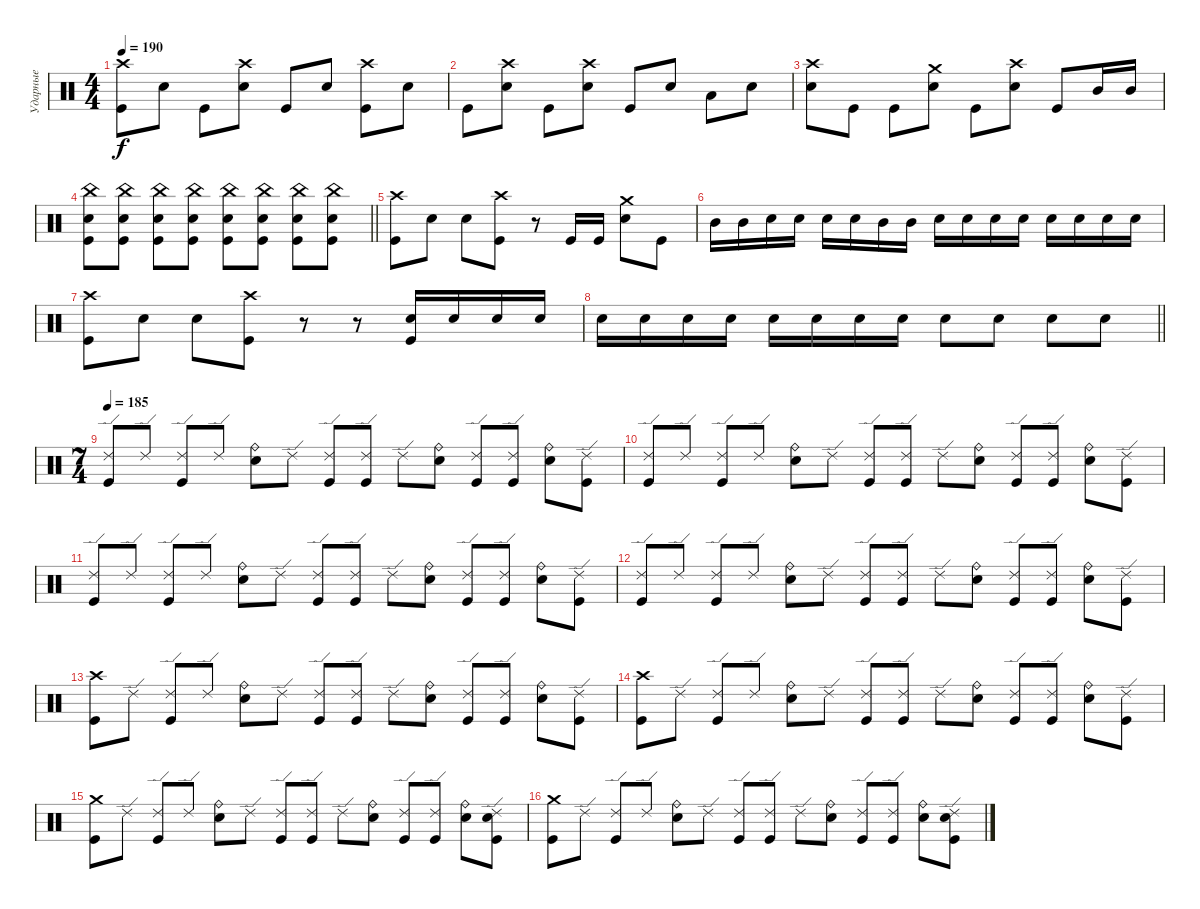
\track ("Ударные" "Ударные") {instrument percussion}
\staff {score}
\articulation defaults
\ts (4 4)
\tempo 190
\clef neutral
\ks c
("Crash high (hit)" "Kick (hit)").8{dy f} "Snare (hit) 2".8 "Kick (hit)".8 ("Crash high (hit)" "Snare (hit) 2").8 "Kick (hit)".8 "Snare (hit) 2".8 ("Crash high (hit)" "Kick (hit)").8 "Snare (hit) 2".8 |
"Kick (hit)".8 ("Crash high (hit)" "Snare (hit) 2").8 "Kick (hit)".8 ("Crash high (hit)" "Snare (hit) 2").8 "Kick (hit)".8 "Snare (hit) 2".8 "Low Tom (hit)".8 "Snare (hit) 2".8 |
("Crash high (hit)" "Snare (hit) 2").8 "Kick (hit)".8 "Kick (hit)".8 ("Crash medium (hit)" "Snare (hit) 2").8 "Kick (hit)".8 ("Crash high (hit)" "Snare (hit) 2").8 "Kick (hit)".8 "Mid Tom (hit)".16 "Mid Tom (hit)".16 |
\barLineRight lightlight
("China (hit)" "Snare (hit) 2" "Kick (hit)").8 ("China (hit)" "Snare (hit) 2" "Kick (hit)").8 ("China (hit)" "Snare (hit) 2" "Kick (hit)").8 ("China (hit)" "Snare (hit) 2" "Kick (hit)").8 ("China (hit)" "Snare (hit) 2" "Kick (hit)").8 ("China (hit)" "Snare (hit) 2" "Kick (hit)").8 ("China (hit)" "Snare (hit) 2" "Kick (hit)").8 ("China (hit)" "Snare (hit) 2" "Kick (hit)").8 |
("Crash high (hit)" "Kick (hit)").8 "Snare (hit) 2".8 "Snare (hit) 2".8 ("Crash high (hit)" "Kick (hit)").8 r.8 "Kick (hit)".16 "Kick (hit)".16 ("Crash medium (hit)" "Snare (hit) 2").8 "Kick (hit)".8 |
"Mid Tom (hit)".16 "Mid Tom (hit)".16 "Snare (hit) 2".16 "Snare (hit) 2".16 "Snare (hit) 2".16 "Snare (hit) 2".16 "Mid Tom (hit)".16 "Mid Tom (hit)".16 "Snare (hit) 2".16 "Snare (hit) 2".16 "Snare (hit) 2".16 "Snare (hit) 2".16 "Snare (hit) 2".16 "Snare (hit) 2".16 "Snare (hit) 2".16 "Snare (hit) 2".16 |
("Crash high (hit)" "Kick (hit)").8 "Snare (hit) 2".8 "Snare (hit) 2".8 ("Crash high (hit)" "Kick (hit)").8 r.8 r.8 ("Snare (hit) 2" "Kick (hit)").16 "Snare (hit) 2".16 "Snare (hit) 2".16 "Snare (hit) 2".16 |
\barLineRight lightlight "Snare (hit) 2".16 "Snare (hit) 2".16 "Snare (hit) 2".16 "Snare (hit) 2".16 "Snare (hit) 2".16 "Snare (hit) 2".16 "Snare (hit) 2".16 "Snare (hit) 2".16 "Snare (hit) 2".8 "Snare (hit) 2".8 "Snare (hit) 2".8 "Snare (hit) 2".8
|
\ts (7 4)
\tempo 185
("Ride (edge) 2" "Kick (hit)").8 "Ride (edge) 2".8 ("Ride (edge) 2" "Kick (hit)").8 "Ride (edge) 2".8 ("Ride (bell)" "Snare (hit) 2").8 "Ride (edge) 2".8 ("Ride (edge) 2" "Kick (hit)").8 ("Ride (edge) 2" "Kick (hit)").8 "Ride (edge) 2".8 ("Ride (bell)" "Snare (hit) 2").8 ("Ride (edge) 2" "Kick (hit)").8 ("Ride (edge) 2" "Kick (hit)").8 ("Ride (bell)" "Snare (hit) 2").8 ("Ride (edge) 2" "Kick (hit)").8 |
("Ride (edge) 2" "Kick (hit)").8 "Ride (edge) 2".8 ("Ride (edge) 2" "Kick (hit)").8 "Ride (edge) 2".8 ("Ride (bell)" "Snare (hit) 2").8 "Ride (edge) 2".8 ("Ride (edge) 2" "Kick (hit)").8 ("Ride (edge) 2" "Kick (hit)").8 "Ride (edge) 2".8 ("Ride (bell)" "Snare (hit) 2").8 ("Ride (edge) 2" "Kick (hit)").8 ("Ride (edge) 2" "Kick (hit)").8 ("Ride (bell)" "Snare (hit) 2").8 ("Ride (edge) 2" "Kick (hit)").8 |
("Ride (edge) 2" "Kick (hit)").8 "Ride (edge) 2".8 ("Ride (edge) 2" "Kick (hit)").8 "Ride (edge) 2".8 ("Ride (bell)" "Snare (hit) 2").8 "Ride (edge) 2".8 ("Ride (edge) 2" "Kick (hit)").8 ("Ride (edge) 2" "Kick (hit)").8 "Ride (edge) 2".8 ("Ride (bell)" "Snare (hit) 2").8 ("Ride (edge) 2" "Kick (hit)").8 ("Ride (edge) 2" "Kick (hit)").8 ("Ride (bell)" "Snare (hit) 2").8 ("Ride (edge) 2" "Kick (hit)").8 |
("Ride (edge) 2" "Kick (hit)").8 "Ride (edge) 2".8 ("Ride (edge) 2" "Kick (hit)").8 "Ride (edge) 2".8 ("Ride (bell)" "Snare (hit) 2").8 "Ride (edge) 2".8 ("Ride (edge) 2" "Kick (hit)").8 ("Ride (edge) 2" "Kick (hit)").8 "Ride (edge) 2".8 ("Ride (bell)" "Snare (hit) 2").8 ("Ride (edge) 2" "Kick (hit)").8 ("Ride (edge) 2" "Kick (hit)").8 ("Ride (bell)" "Snare (hit) 2").8 ("Ride (edge) 2" "Kick (hit)").8 |
("Crash high (hit)" "Kick (hit)").8 "Ride (edge) 2".8 ("Ride (edge) 2" "Kick (hit)").8 "Ride (edge) 2".8 ("Ride (bell)" "Snare (hit) 2").8 "Ride (edge) 2".8 ("Ride (edge) 2" "Kick (hit)").8 ("Ride (edge) 2" "Kick (hit)").8 "Ride (edge) 2".8 ("Ride (bell)" "Snare (hit) 2").8 ("Ride (edge) 2" "Kick (hit)").8 ("Ride (edge) 2" "Kick (hit)").8 ("Ride (bell)" "Snare (hit) 2").8 ("Ride (edge) 2" "Kick (hit)").8 |
("Crash high (hit)" "Kick (hit)").8 "Ride (edge) 2".8 ("Ride (edge) 2" "Kick (hit)").8 "Ride (edge) 2".8 ("Ride (bell)" "Snare (hit) 2").8 "Ride (edge) 2".8 ("Ride (edge) 2" "Kick (hit)").8 ("Ride (edge) 2" "Kick (hit)").8 "Ride (edge) 2".8 ("Ride (bell)" "Snare (hit) 2").8 ("Ride (edge) 2" "Kick (hit)").8 ("Ride (edge) 2" "Kick (hit)").8 ("Ride (bell)" "Snare (hit) 2").8 ("Ride (edge) 2" "Kick (hit)").8 |
("Crash medium (hit)" "Kick (hit)").8 "Ride (edge) 2".8 ("Ride (edge) 2" "Kick (hit)").8 "Ride (edge) 2".8 ("Ride (bell)" "Snare (hit) 2").8 "Ride (edge) 2".8 ("Ride (edge) 2" "Kick (hit)").8 ("Ride (edge) 2" "Kick (hit)").8 "Ride (edge) 2".8 ("Ride (bell)" "Snare (hit) 2").8 ("Ride (edge) 2" "Kick (hit)").8 ("Ride (edge) 2" "Kick (hit)").8 ("Ride (bell)" "Snare (hit) 2").8 ("Ride (edge) 2" "Snare (hit) 2" "Kick (hit)").8 |
("Crash medium (hit)" "Kick (hit)").8 "Ride (edge) 2".8 ("Ride (edge) 2" "Kick (hit)").8 "Ride (edge) 2".8 ("Ride (bell)" "Snare (hit) 2").8 "Ride (edge) 2".8 ("Ride (edge) 2" "Kick (hit)").8 ("Ride (edge) 2" "Kick (hit)").8 "Ride (edge) 2".8 ("Ride (bell)" "Snare (hit) 2").8 ("Ride (edge) 2" "Kick (hit)").8 ("Ride (edge) 2" "Kick (hit)").8 ("Ride (bell)" "Snare (hit) 2").8 ("Ride (edge) 2" "Snare (hit) 2" "Kick (hit)").8
